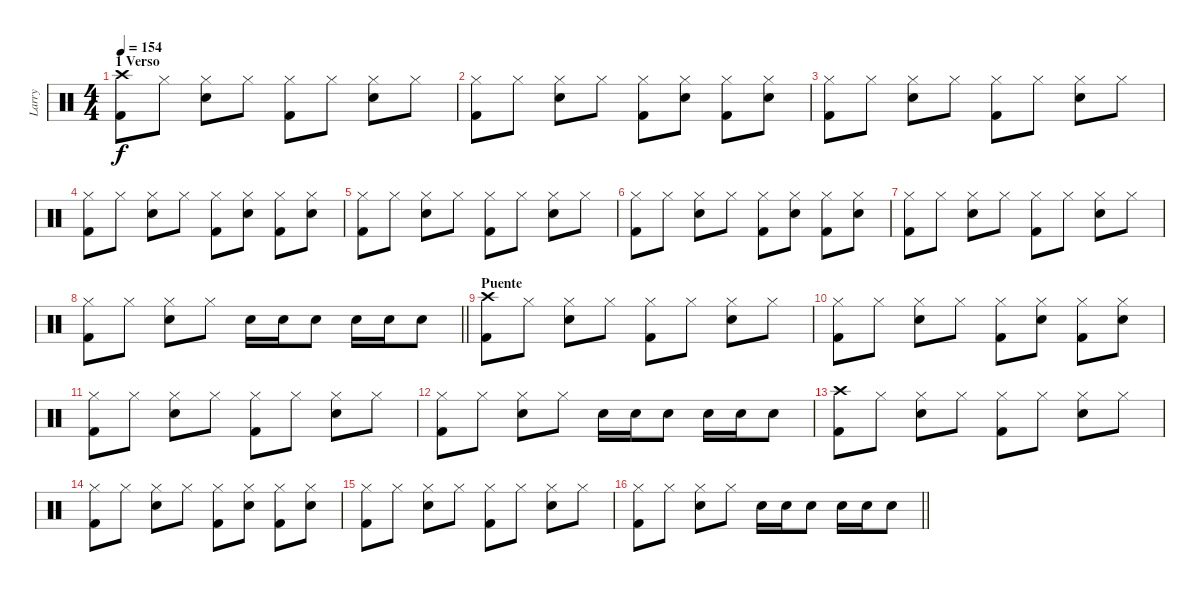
\track ("Larry " "Larry ") {instrument percussion}
\staff {score}
\articulation defaults
\ts (4 4)
\section ("" "1 Verso")
\tempo 154
\clef neutral
\ks c
("Crash high (hit)" "Kick (hit) 2").8{dy f} "Hi-Hat (closed)".8 ("Hi-Hat (closed)" "Snare (hit) 2").8 "Hi-Hat (closed)".8 ("Hi-Hat (closed)" "Kick (hit) 2").8 "Hi-Hat (closed)".8 ("Hi-Hat (closed)" "Snare (hit) 2").8 "Hi-Hat (closed)".8 |
("Hi-Hat (closed)" "Kick (hit) 2").8 "Hi-Hat (closed)".8 ("Snare (hit) 2" "Hi-Hat (closed)").8 "Hi-Hat (closed)".8 ("Hi-Hat (closed)" "Kick (hit) 2").8 ("Snare (hit) 2" "Hi-Hat (closed)").8 ("Hi-Hat (closed)" "Kick (hit) 2").8 ("Snare (hit) 2" "Hi-Hat (closed)").8 |
("Hi-Hat (closed)" "Kick (hit) 2").8 "Hi-Hat (closed)".8 ("Hi-Hat (closed)" "Snare (hit) 2").8 "Hi-Hat (closed)".8 ("Hi-Hat (closed)" "Kick (hit) 2").8 "Hi-Hat (closed)".8 ("Hi-Hat (closed)" "Snare (hit) 2").8 "Hi-Hat (closed)".8 |
("Hi-Hat (closed)" "Kick (hit) 2").8 "Hi-Hat (closed)".8 ("Snare (hit) 2" "Hi-Hat (closed)").8 "Hi-Hat (closed)".8 ("Hi-Hat (closed)" "Kick (hit) 2").8 ("Snare (hit) 2" "Hi-Hat (closed)").8 ("Hi-Hat (closed)" "Kick (hit) 2").8 ("Snare (hit) 2" "Hi-Hat (closed)").8 |
("Hi-Hat (closed)" "Kick (hit) 2").8 "Hi-Hat (closed)".8 ("Hi-Hat (closed)" "Snare (hit) 2").8 "Hi-Hat (closed)".8 ("Hi-Hat (closed)" "Kick (hit) 2").8 "Hi-Hat (closed)".8 ("Hi-Hat (closed)" "Snare (hit) 2").8 "Hi-Hat (closed)".8 |
("Hi-Hat (closed)" "Kick (hit) 2").8 "Hi-Hat (closed)".8 ("Snare (hit) 2" "Hi-Hat (closed)").8 "Hi-Hat (closed)".8 ("Hi-Hat (closed)" "Kick (hit) 2").8 ("Snare (hit) 2" "Hi-Hat (closed)").8 ("Hi-Hat (closed)" "Kick (hit) 2").8 ("Snare (hit) 2" "Hi-Hat (closed)").8 |
("Hi-Hat (closed)" "Kick (hit) 2").8 "Hi-Hat (closed)".8 ("Hi-Hat (closed)" "Snare (hit) 2").8 "Hi-Hat (closed)".8 ("Hi-Hat (closed)" "Kick (hit) 2").8 "Hi-Hat (closed)".8 ("Hi-Hat (closed)" "Snare (hit) 2").8 "Hi-Hat (closed)".8 |
\barLineRight lightlight
("Hi-Hat (closed)" "Kick (hit) 2").8 "Hi-Hat (closed)".8 ("Hi-Hat (closed)" "Snare (hit) 2").8 "Hi-Hat (closed)".8 "Snare (hit) 2".16 "Snare (hit) 2".16 "Snare (hit) 2".8 "Snare (hit) 2".16 "Snare (hit) 2".16 "Snare (hit) 2".8 |
\section ("" "Puente")
("Crash high (hit)" "Kick (hit) 2").8 "Hi-Hat (closed)".8 ("Hi-Hat (closed)" "Snare (hit) 2").8 "Hi-Hat (closed)".8 ("Hi-Hat (closed)" "Kick (hit) 2").8 "Hi-Hat (closed)".8 ("Hi-Hat (closed)" "Snare (hit) 2").8 "Hi-Hat (closed)".8 |
("Hi-Hat (closed)" "Kick (hit) 2").8 "Hi-Hat (closed)".8 ("Snare (hit) 2" "Hi-Hat (closed)").8 "Hi-Hat (closed)".8 ("Hi-Hat (closed)" "Kick (hit) 2").8 ("Snare (hit) 2" "Hi-Hat (closed)").8 ("Hi-Hat (closed)" "Kick (hit) 2").8 ("Snare (hit) 2" "Hi-Hat (closed)").8 |
("Hi-Hat (closed)" "Kick (hit) 2").8 "Hi-Hat (closed)".8 ("Hi-Hat (closed)" "Snare (hit) 2").8 "Hi-Hat (closed)".8 ("Hi-Hat (closed)" "Kick (hit) 2").8 "Hi-Hat (closed)".8 ("Hi-Hat (closed)" "Snare (hit) 2").8 "Hi-Hat (closed)".8 |
("Hi-Hat (closed)" "Kick (hit) 2").8 "Hi-Hat (closed)".8 ("Hi-Hat (closed)" "Snare (hit) 2").8 "Hi-Hat (closed)".8 "Snare (hit) 2".16 "Snare (hit) 2".16 "Snare (hit) 2".8 "Snare (hit) 2".16 "Snare (hit) 2".16 "Snare (hit) 2".8 |
("Crash high (hit)" "Kick (hit) 2").8 "Hi-Hat (closed)".8 ("Hi-Hat (closed)" "Snare (hit) 2").8 "Hi-Hat (closed)".8 ("Hi-Hat (closed)" "Kick (hit) 2").8 "Hi-Hat (closed)".8 ("Hi-Hat (closed)" "Snare (hit) 2").8 "Hi-Hat (closed)".8 |
("Hi-Hat (closed)" "Kick (hit) 2").8 "Hi-Hat (closed)".8 ("Snare (hit) 2" "Hi-Hat (closed)").8 "Hi-Hat (closed)".8 ("Hi-Hat (closed)" "Kick (hit) 2").8 ("Snare (hit) 2" "Hi-Hat (closed)").8 ("Hi-Hat (closed)" "Kick (hit) 2").8 ("Snare (hit) 2" "Hi-Hat (closed)").8 |
("Hi-Hat (closed)" "Kick (hit) 2").8 "Hi-Hat (closed)".8 ("Hi-Hat (closed)" "Snare (hit) 2").8 "Hi-Hat (closed)".8 ("Hi-Hat (closed)" "Kick (hit) 2").8 "Hi-Hat (closed)".8 ("Hi-Hat (closed)" "Snare (hit) 2").8 "Hi-Hat (closed)".8 |
\barLineRight lightlight
("Hi-Hat (closed)" "Kick (hit) 2").8 "Hi-Hat (closed)".8 ("Hi-Hat (closed)" "Snare (hit) 2").8 "Hi-Hat (closed)".8 "Snare (hit) 2".16 "Snare (hit) 2".16 "Snare (hit) 2".8 "Snare (hit) 2".16 "Snare (hit) 2".16 "Snare (hit) 2".8
